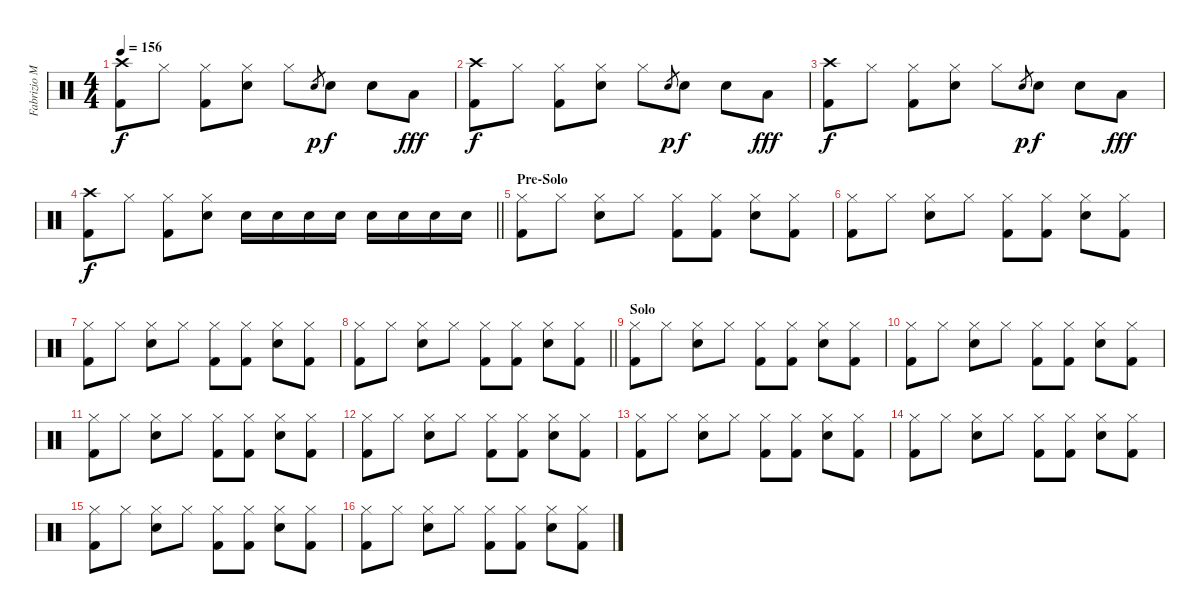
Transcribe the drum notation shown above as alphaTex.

\track ("Fabrizio Moretti" "Fabrizio M") {instrument percussion}
\staff {score}
\articulation defaults
\ts (4 4)
\tempo 156
\clef neutral
\ks c
("Crash high (hit)" "Kick (hit) 2").8{dy f} "Hi-Hat (closed)".8 ("Hi-Hat (closed)" "Kick (hit) 2").8 ("Hi-Hat (closed)" "Snare (hit) 2").8 "Hi-Hat (closed)".8 "Snare (hit) 2".8{gr dy p} "Snare (hit) 2".8{dy f} "Snare (hit) 2".8 "Low Tom (hit)".8{dy fff} |
("Crash high (hit)" "Kick (hit) 2").8{dy f} "Hi-Hat (closed)".8 ("Hi-Hat (closed)" "Kick (hit) 2").8 ("Hi-Hat (closed)" "Snare (hit) 2").8 "Hi-Hat (closed)".8 "Snare (hit) 2".8{gr dy p} "Snare (hit) 2".8{dy f} "Snare (hit) 2".8 "Low Tom (hit)".8{dy fff} |
("Crash high (hit)" "Kick (hit) 2").8{dy f} "Hi-Hat (closed)".8 ("Hi-Hat (closed)" "Kick (hit) 2").8 ("Hi-Hat (closed)" "Snare (hit) 2").8 "Hi-Hat (closed)".8 "Snare (hit) 2".8{gr dy p} "Snare (hit) 2".8{dy f} "Snare (hit) 2".8 "Low Tom (hit)".8{dy fff} |
\barLineRight lightlight
("Crash high (hit)" "Kick (hit) 2").8{dy f} "Hi-Hat (closed)".8 ("Hi-Hat (closed)" "Kick (hit) 2").8 ("Hi-Hat (closed)" "Snare (hit) 2").8 "Snare (hit) 2".16 "Snare (hit) 2".16 "Snare (hit) 2".16 "Snare (hit) 2".16 "Snare (hit) 2".16 "Snare (hit) 2".16 "Snare (hit) 2".16 "Snare (hit) 2".16 |
\section ("" "Pre-Solo")
("Hi-Hat (closed)" "Kick (hit) 2").8 "Hi-Hat (closed)".8 ("Hi-Hat (closed)" "Snare (hit) 2").8 "Hi-Hat (closed)".8 ("Hi-Hat (closed)" "Kick (hit) 2").8 ("Hi-Hat (closed)" "Kick (hit) 2").8 ("Hi-Hat (closed)" "Snare (hit) 2").8 ("Hi-Hat (closed)" "Kick (hit) 2").8 |
("Hi-Hat (closed)" "Kick (hit) 2").8 "Hi-Hat (closed)".8 ("Hi-Hat (closed)" "Snare (hit) 2").8 "Hi-Hat (closed)".8 ("Hi-Hat (closed)" "Kick (hit) 2").8 ("Hi-Hat (closed)" "Kick (hit) 2").8 ("Hi-Hat (closed)" "Snare (hit) 2").8 ("Hi-Hat (closed)" "Kick (hit) 2").8 |
("Hi-Hat (closed)" "Kick (hit) 2").8 "Hi-Hat (closed)".8 ("Hi-Hat (closed)" "Snare (hit) 2").8 "Hi-Hat (closed)".8 ("Hi-Hat (closed)" "Kick (hit) 2").8 ("Hi-Hat (closed)" "Kick (hit) 2").8 ("Hi-Hat (closed)" "Snare (hit) 2").8 ("Hi-Hat (closed)" "Kick (hit) 2").8 |
\barLineRight lightlight
("Hi-Hat (closed)" "Kick (hit) 2").8 "Hi-Hat (closed)".8 ("Hi-Hat (closed)" "Snare (hit) 2").8 "Hi-Hat (closed)".8 ("Hi-Hat (closed)" "Kick (hit) 2").8 ("Hi-Hat (closed)" "Kick (hit) 2").8 ("Hi-Hat (closed)" "Snare (hit) 2").8 ("Hi-Hat (closed)" "Kick (hit) 2").8 |
\section ("" "Solo")
("Hi-Hat (closed)" "Kick (hit) 2").8 "Hi-Hat (closed)".8 ("Hi-Hat (closed)" "Snare (hit) 2").8 "Hi-Hat (closed)".8 ("Hi-Hat (closed)" "Kick (hit) 2").8 ("Hi-Hat (closed)" "Kick (hit) 2").8 ("Hi-Hat (closed)" "Snare (hit) 2").8 ("Hi-Hat (closed)" "Kick (hit) 2").8 |
("Hi-Hat (closed)" "Kick (hit) 2").8 "Hi-Hat (closed)".8 ("Hi-Hat (closed)" "Snare (hit) 2").8 "Hi-Hat (closed)".8 ("Hi-Hat (closed)" "Kick (hit) 2").8 ("Hi-Hat (closed)" "Kick (hit) 2").8 ("Hi-Hat (closed)" "Snare (hit) 2").8 ("Hi-Hat (closed)" "Kick (hit) 2").8 |
("Hi-Hat (closed)" "Kick (hit) 2").8 "Hi-Hat (closed)".8 ("Hi-Hat (closed)" "Snare (hit) 2").8 "Hi-Hat (closed)".8 ("Hi-Hat (closed)" "Kick (hit) 2").8 ("Hi-Hat (closed)" "Kick (hit) 2").8 ("Hi-Hat (closed)" "Snare (hit) 2").8 ("Hi-Hat (closed)" "Kick (hit) 2").8 |
("Hi-Hat (closed)" "Kick (hit) 2").8 "Hi-Hat (closed)".8 ("Hi-Hat (closed)" "Snare (hit) 2").8 "Hi-Hat (closed)".8 ("Hi-Hat (closed)" "Kick (hit) 2").8 ("Hi-Hat (closed)" "Kick (hit) 2").8 ("Hi-Hat (closed)" "Snare (hit) 2").8 ("Hi-Hat (closed)" "Kick (hit) 2").8 |
("Hi-Hat (closed)" "Kick (hit) 2").8 "Hi-Hat (closed)".8 ("Hi-Hat (closed)" "Snare (hit) 2").8 "Hi-Hat (closed)".8 ("Hi-Hat (closed)" "Kick (hit) 2").8 ("Hi-Hat (closed)" "Kick (hit) 2").8 ("Hi-Hat (closed)" "Snare (hit) 2").8 ("Hi-Hat (closed)" "Kick (hit) 2").8 |
("Hi-Hat (closed)" "Kick (hit) 2").8 "Hi-Hat (closed)".8 ("Hi-Hat (closed)" "Snare (hit) 2").8 "Hi-Hat (closed)".8 ("Hi-Hat (closed)" "Kick (hit) 2").8 ("Hi-Hat (closed)" "Kick (hit) 2").8 ("Hi-Hat (closed)" "Snare (hit) 2").8 ("Hi-Hat (closed)" "Kick (hit) 2").8 |
("Hi-Hat (closed)" "Kick (hit) 2").8 "Hi-Hat (closed)".8 ("Hi-Hat (closed)" "Snare (hit) 2").8 "Hi-Hat (closed)".8 ("Hi-Hat (closed)" "Kick (hit) 2").8 ("Hi-Hat (closed)" "Kick (hit) 2").8 ("Hi-Hat (closed)" "Snare (hit) 2").8 ("Hi-Hat (closed)" "Kick (hit) 2").8 |
("Hi-Hat (closed)" "Kick (hit) 2").8 "Hi-Hat (closed)".8 ("Hi-Hat (closed)" "Snare (hit) 2").8 "Hi-Hat (closed)".8 ("Hi-Hat (closed)" "Kick (hit) 2").8 ("Hi-Hat (closed)" "Kick (hit) 2").8 ("Hi-Hat (closed)" "Snare (hit) 2").8 ("Hi-Hat (closed)" "Kick (hit) 2").8
